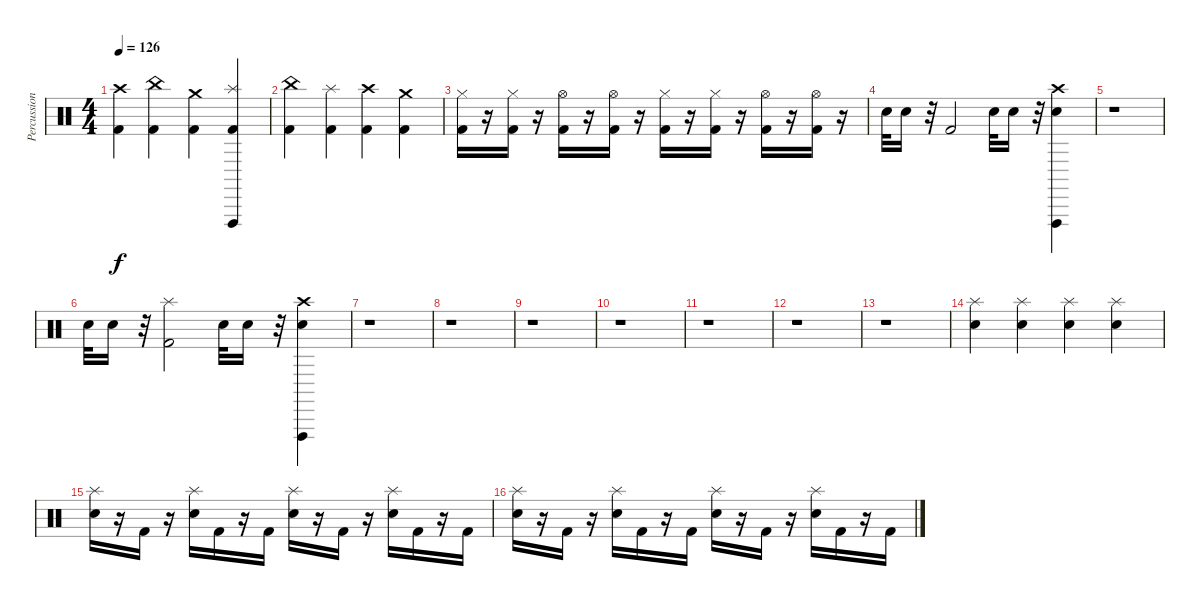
\track ("Percussions" "Percussion") {instrument percussion}
\staff {score}
\articulation defaults
\ts (4 4)
\tempo 126
\clef neutral
\ks c
("Crash high (hit)" "Kick (hit) 2").4{dy f} ("China (hit)" "Kick (hit) 2").4 ("Crash medium (hit)" "Kick (hit) 2").4 ("Splash (hit)" "Vibraslap (hit)" "Kick (hit) 2").4 |
("China (hit)" "Kick (hit) 2").4 ("Splash (hit)" "Kick (hit) 2").4 ("Crash high (hit)" "Kick (hit) 2").4 ("Crash medium (hit)" "Kick (hit) 2").4 |
("Hi-Hat (closed)" "Kick (hit) 2").16 r.16 ("Hi-Hat (closed)" "Kick (hit) 2").16 r.16 ("Hi-Hat (open)" "Kick (hit) 2").16 r.16 ("Hi-Hat (open)" "Kick (hit) 2").16 r.16 ("Hi-Hat (closed)" "Kick (hit) 2").16 r.16 ("Hi-Hat (closed)" "Kick (hit) 2").16 r.16 ("Hi-Hat (open)" "Kick (hit) 2").16 r.16 ("Hi-Hat (open)" "Kick (hit) 2").16 r.16 |
"Electric Snare (hit)".32 "Electric Snare (hit)".16 r.32 "Kick (hit) 2".2 "Electric Snare (hit)".32 "Electric Snare (hit)".16 r.32 ("Crash high (hit)" "Vibraslap (hit)" "Electric Snare (hit)").4 |
r.1 |
"Electric Snare (hit)".32 "Electric Snare (hit)".16 r.32 ("Splash (hit)" "Kick (hit) 2").2 "Electric Snare (hit)".32 "Electric Snare (hit)".16 r.32 ("Crash high (hit)" "Vibraslap (hit)" "Electric Snare (hit)").4 |
r.1 |
r.1 |
r.1 |
r.1 |
r.1 |
r.1 |
r.1 |
("Splash (hit)" "Electric Snare (hit)").4 ("Splash (hit)" "Electric Snare (hit)").4 ("Splash (hit)" "Electric Snare (hit)").4 ("Splash (hit)" "Electric Snare (hit)").4 |
("Splash (hit)" "Electric Snare (hit)").16 r.16 "Kick (hit) 2".16 r.16 ("Splash (hit)" "Electric Snare (hit)").16 "Kick (hit) 2".16 r.16 "Kick (hit) 2".16 ("Splash (hit)" "Electric Snare (hit)").16 r.16 "Kick (hit) 2".16 r.16 ("Splash (hit)" "Electric Snare (hit)").16 "Kick (hit) 2".16 r.16 "Kick (hit) 2".16 |
("Splash (hit)" "Electric Snare (hit)").16 r.16 "Kick (hit) 2".16 r.16 ("Splash (hit)" "Electric Snare (hit)").16 "Kick (hit) 2".16 r.16 "Kick (hit) 2".16 ("Splash (hit)" "Electric Snare (hit)").16 r.16 "Kick (hit) 2".16 r.16 ("Splash (hit)" "Electric Snare (hit)").16 "Kick (hit) 2".16 r.16 "Kick (hit) 2".16
